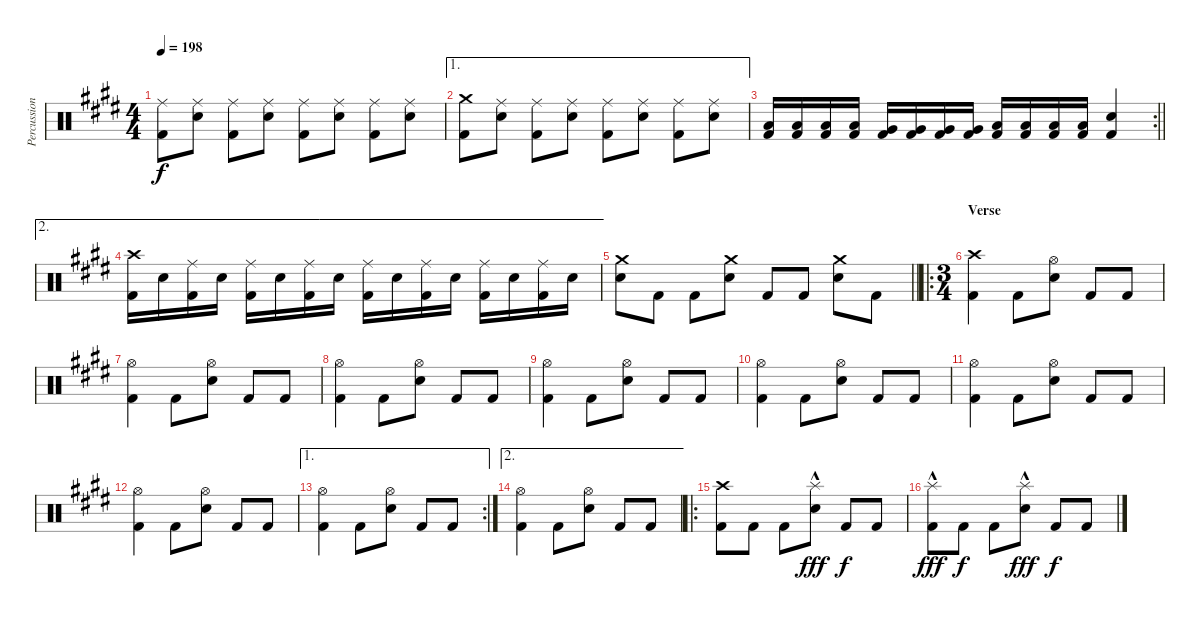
\track ("Percussion" "Percussion") {instrument percussion}
\staff {score}
\articulation defaults
\ts (4 4)
\tempo 198
\clef neutral
\ks e
("Ride (middle)" "Kick (hit) 2").8{dy f} ("Ride (middle)" "Snare (hit) 2").8 ("Ride (middle)" "Kick (hit) 2").8 ("Ride (middle)" "Snare (hit) 2").8 ("Ride (middle)" "Kick (hit) 2").8 ("Ride (middle)" "Snare (hit) 2").8 ("Ride (middle)" "Kick (hit) 2").8 ("Ride (middle)" "Snare (hit) 2").8 |
\ae 1
("Crash medium (hit)" "Kick (hit) 2").8 ("Ride (middle)" "Snare (hit) 2").8 ("Ride (middle)" "Kick (hit) 2").8 ("Ride (middle)" "Snare (hit) 2").8 ("Ride (middle)" "Kick (hit) 2").8 ("Ride (middle)" "Snare (hit) 2").8 ("Ride (middle)" "Kick (hit) 2").8 ("Ride (middle)" "Snare (hit) 2").8 |
\rc 2
\barLineRight lightlight
("Low Tom (hit)" "Kick (hit) 2").16 ("Low Tom (hit)" "Kick (hit) 2").16 ("Low Tom (hit)" "Kick (hit) 2").16 ("Low Tom (hit)" "Kick (hit) 2").16 ("Very Low Tom (hit)" "Kick (hit) 2").16 ("Very Low Tom (hit)" "Kick (hit) 2").16 ("Very Low Tom (hit)" "Kick (hit) 2").16 ("Very Low Tom (hit)" "Kick (hit) 2").16 ("Low Floor Tom (hit)" "Kick (hit) 2").16 ("Low Floor Tom (hit)" "Kick (hit) 2").16 ("Low Floor Tom (hit)" "Kick (hit) 2").16 ("Low Floor Tom (hit)" "Kick (hit) 2").16 ("Snare (hit) 2" "Kick (hit) 2").4 |
\ae 2
("Crash high (hit)" "Kick (hit) 2").16 "Snare (hit) 2".16 ("Ride (middle)" "Kick (hit) 2").16 "Snare (hit) 2".16 ("Ride (middle)" "Kick (hit) 2").16 "Snare (hit) 2".16 ("Ride (middle)" "Kick (hit) 2").16 "Snare (hit) 2".16 ("Ride (middle)" "Kick (hit) 2").16 "Snare (hit) 2".16 ("Ride (middle)" "Kick (hit) 2").16 "Snare (hit) 2".16 ("Ride (middle)" "Kick (hit) 2").16 "Snare (hit) 2".16 ("Ride (middle)" "Kick (hit) 2").16 "Snare (hit) 2".16 |
\barLineRight lightlight
("Crash medium (hit)" "Snare (hit) 2").8 "Kick (hit) 2".8 "Kick (hit) 2".8 ("Crash medium (hit)" "Snare (hit) 2").8 "Kick (hit) 2".8 "Kick (hit) 2".8 ("Crash medium (hit)" "Snare (hit) 2").8 "Kick (hit) 2".8 |
\ro
\ts (3 4)
\section ("" "Verse")
("Crash high (hit)" "Kick (hit) 2").4 "Kick (hit) 2".8 ("Hi-Hat (open)" "Snare (hit) 2").8 "Kick (hit) 2".8 "Kick (hit) 2".8 |
("Hi-Hat (open)" "Kick (hit) 2").4 "Kick (hit) 2".8 ("Hi-Hat (open)" "Snare (hit) 2").8 "Kick (hit) 2".8 "Kick (hit) 2".8 |
("Hi-Hat (open)" "Kick (hit) 2").4 "Kick (hit) 2".8 ("Hi-Hat (open)" "Snare (hit) 2").8 "Kick (hit) 2".8 "Kick (hit) 2".8 |
("Hi-Hat (open)" "Kick (hit) 2").4 "Kick (hit) 2".8 ("Hi-Hat (open)" "Snare (hit) 2").8 "Kick (hit) 2".8 "Kick (hit) 2".8 |
("Hi-Hat (open)" "Kick (hit) 2").4 "Kick (hit) 2".8 ("Hi-Hat (open)" "Snare (hit) 2").8 "Kick (hit) 2".8 "Kick (hit) 2".8 |
("Hi-Hat (open)" "Kick (hit) 2").4 "Kick (hit) 2".8 ("Hi-Hat (open)" "Snare (hit) 2").8 "Kick (hit) 2".8 "Kick (hit) 2".8 |
("Hi-Hat (open)" "Kick (hit) 2").4 "Kick (hit) 2".8 ("Hi-Hat (open)" "Snare (hit) 2").8 "Kick (hit) 2".8 "Kick (hit) 2".8 |
\ae 1
\rc 2
("Hi-Hat (open)" "Kick (hit) 2").4 "Kick (hit) 2".8 ("Hi-Hat (open)" "Snare (hit) 2").8 "Kick (hit) 2".8 "Kick (hit) 2".8 |
\ae 2
("Hi-Hat (open)" "Kick (hit) 2").4 "Kick (hit) 2".8 ("Hi-Hat (open)" "Snare (hit) 2").8 "Kick (hit) 2".8 "Kick (hit) 2".8 |
\ro
("Crash high (hit)" "Kick (hit) 2").8 "Kick (hit) 2".8 "Kick (hit) 2".8 ("Splash (hit)"{hac} "Snare (hit) 2").8{dy fff} "Kick (hit) 2".8{dy f} "Kick (hit) 2".8 |
("Splash (hit)"{hac} "Kick (hit) 2").8{dy fff} "Kick (hit) 2".8{dy f} "Kick (hit) 2".8 ("Splash (hit)"{hac} "Snare (hit) 2").8{dy fff} "Kick (hit) 2".8{dy f} "Kick (hit) 2".8
